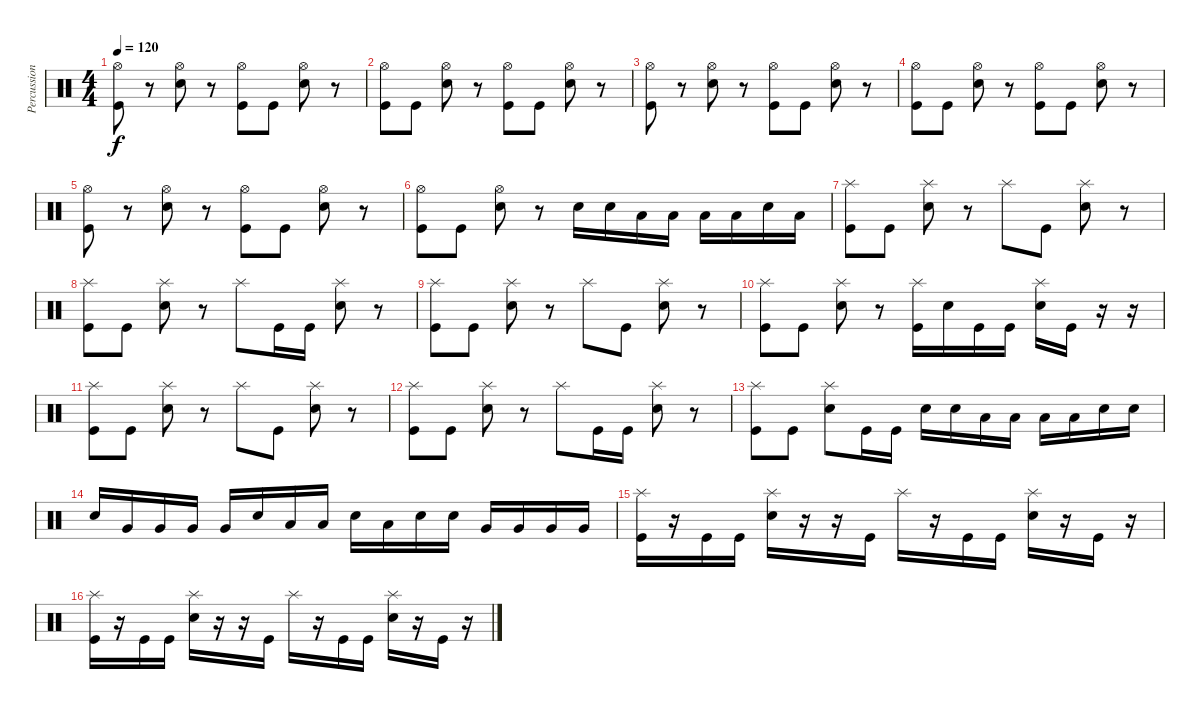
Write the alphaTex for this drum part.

\track ("Percussion" "Percussion") {instrument percussion}
\staff {score}
\articulation defaults
\ts (4 4)
\tempo 120
\clef neutral
\ks c
("Hi-Hat (open)" "Kick (hit)").8{dy f} r.8 ("Hi-Hat (open)" "Electric Snare (hit)").8 r.8 ("Hi-Hat (open)" "Kick (hit)").8 "Kick (hit)".8 ("Hi-Hat (open)" "Electric Snare (hit)").8 r.8 |
("Hi-Hat (open)" "Kick (hit)").8 "Kick (hit)".8 ("Hi-Hat (open)" "Electric Snare (hit)").8 r.8 ("Hi-Hat (open)" "Kick (hit)").8 "Kick (hit)".8 ("Hi-Hat (open)" "Electric Snare (hit)").8 r.8 |
("Hi-Hat (open)" "Kick (hit)").8 r.8 ("Hi-Hat (open)" "Electric Snare (hit)").8 r.8 ("Hi-Hat (open)" "Kick (hit)").8 "Kick (hit)".8 ("Hi-Hat (open)" "Electric Snare (hit)").8 r.8 |
("Hi-Hat (open)" "Kick (hit)").8 "Kick (hit)".8 ("Hi-Hat (open)" "Electric Snare (hit)").8 r.8 ("Hi-Hat (open)" "Kick (hit)").8 "Kick (hit)".8 ("Hi-Hat (open)" "Electric Snare (hit)").8 r.8 |
("Hi-Hat (open)" "Kick (hit)").8 r.8 ("Hi-Hat (open)" "Electric Snare (hit)").8 r.8 ("Hi-Hat (open)" "Kick (hit)").8 "Kick (hit)".8 ("Hi-Hat (open)" "Electric Snare (hit)").8 r.8 |
("Hi-Hat (open)" "Kick (hit)").8 "Kick (hit)".8 ("Hi-Hat (open)" "Electric Snare (hit)").8 r.8 "Electric Snare (hit)".16 "Electric Snare (hit)".16 "Low Tom (hit)".16 "Low Tom (hit)".16 "Low Tom (hit)".16 "Low Tom (hit)".16 "Electric Snare (hit)".16 "Low Tom (hit)".16 |
("Splash (hit)" "Kick (hit)").8{volume 16} "Kick (hit)".8 ("Splash (hit)" "Electric Snare (hit)").8 r.8 "Splash (hit)".8 "Kick (hit)".8 ("Splash (hit)" "Electric Snare (hit)").8 r.8 |
("Splash (hit)" "Kick (hit)").8 "Kick (hit)".8 ("Splash (hit)" "Electric Snare (hit)").8 r.8 "Splash (hit)".8 "Kick (hit)".16 "Kick (hit)".16 ("Splash (hit)" "Electric Snare (hit)").8 r.8 |
("Splash (hit)" "Kick (hit)").8 "Kick (hit)".8 ("Splash (hit)" "Electric Snare (hit)").8 r.8 "Splash (hit)".8 "Kick (hit)".8 ("Splash (hit)" "Electric Snare (hit)").8 r.8 |
("Splash (hit)" "Kick (hit)").8 "Kick (hit)".8 ("Splash (hit)" "Electric Snare (hit)").8 r.8 ("Splash (hit)" "Kick (hit)").16 "Electric Snare (hit)".16 "Kick (hit)".16 "Kick (hit)".16 ("Splash (hit)" "Electric Snare (hit)").16 "Kick (hit)".16 r.16 r.16 |
("Splash (hit)" "Kick (hit)").8 "Kick (hit)".8 ("Splash (hit)" "Electric Snare (hit)").8 r.8 "Splash (hit)".8 "Kick (hit)".8 ("Splash (hit)" "Electric Snare (hit)").8 r.8 |
("Splash (hit)" "Kick (hit)").8 "Kick (hit)".8 ("Splash (hit)" "Electric Snare (hit)").8 r.8 "Splash (hit)".8 "Kick (hit)".16 "Kick (hit)".16 ("Splash (hit)" "Electric Snare (hit)").8 r.8 |
("Splash (hit)" "Kick (hit)").8 "Kick (hit)".8 ("Splash (hit)" "Electric Snare (hit)").8 "Kick (hit)".16 "Kick (hit)".16 "Electric Snare (hit)".16 "Electric Snare (hit)".16 "Low Tom (hit)".16 "Low Tom (hit)".16 "Low Tom (hit)".16 "Low Tom (hit)".16 "Electric Snare (hit)".16 "Electric Snare (hit)".16 |
"Electric Snare (hit)".16 "Very Low Tom (hit)".16 "Very Low Tom (hit)".16 "Very Low Tom (hit)".16 "Very Low Tom (hit)".16 "Electric Snare (hit)".16 "Low Tom (hit)".16 "Low Tom (hit)".16 "Electric Snare (hit)".16 "Low Tom (hit)".16 "Electric Snare (hit)".16 "Electric Snare (hit)".16 "Very Low Tom (hit)".16 "Very Low Tom (hit)".16 "Very Low Tom (hit)".16 "Very Low Tom (hit)".16 |
("Splash (hit)" "Kick (hit)").16 r.16 "Kick (hit)".16 "Kick (hit)".16 ("Splash (hit)" "Electric Snare (hit)").16 r.16 r.16 "Kick (hit)".16 "Splash (hit)".16 r.16 "Kick (hit)".16 "Kick (hit)".16 ("Splash (hit)" "Electric Snare (hit)").16 r.16 "Kick (hit)".16 r.16 |
("Splash (hit)" "Kick (hit)").16 r.16 "Kick (hit)".16 "Kick (hit)".16 ("Splash (hit)" "Electric Snare (hit)").16 r.16 r.16 "Kick (hit)".16 "Splash (hit)".16 r.16 "Kick (hit)".16 "Kick (hit)".16 ("Splash (hit)" "Electric Snare (hit)").16 r.16 "Kick (hit)".16 r.16
